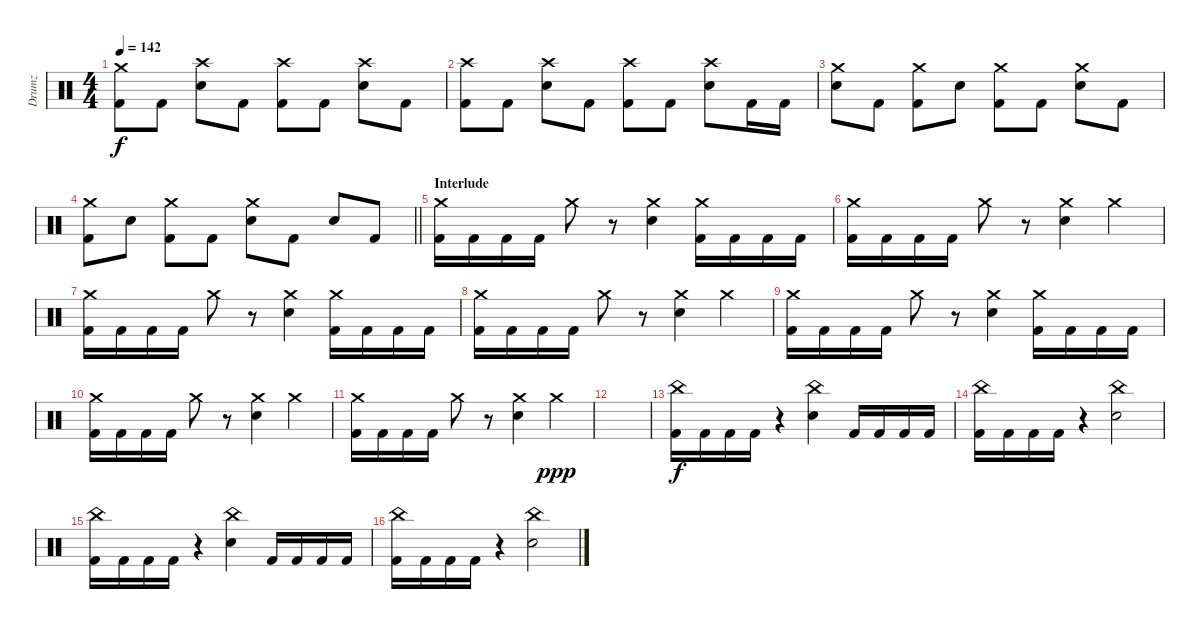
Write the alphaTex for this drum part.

\track ("Drumz" "Drumz") {instrument percussion}
\staff {score}
\articulation defaults
\ts (4 4)
\tempo 142
\clef neutral
\ks c
("Crash medium (hit)" "Kick (hit) 2").8{dy f} "Kick (hit) 2".8 ("Crash high (hit)" "Electric Snare (hit)").8 "Kick (hit) 2".8 ("Crash high (hit)" "Kick (hit) 2").8 "Kick (hit) 2".8 ("Crash high (hit)" "Electric Snare (hit)").8 "Kick (hit) 2".8 |
("Crash high (hit)" "Kick (hit) 2").8 "Kick (hit) 2".8 ("Crash high (hit)" "Electric Snare (hit)").8 "Kick (hit) 2".8 ("Crash high (hit)" "Kick (hit) 2").8 "Kick (hit) 2".8 ("Crash high (hit)" "Electric Snare (hit)").8 "Kick (hit) 2".16 "Kick (hit) 2".16 |
("Crash medium (hit)" "Electric Snare (hit)").8 "Kick (hit) 2".8 ("Crash medium (hit)" "Kick (hit) 2").8 "Electric Snare (hit)".8 ("Crash medium (hit)" "Kick (hit) 2").8 "Kick (hit) 2".8 ("Crash medium (hit)" "Electric Snare (hit)").8 "Kick (hit) 2".8 |
\barLineRight lightlight
("Crash medium (hit)" "Kick (hit) 2").8 "Electric Snare (hit)".8 ("Crash medium (hit)" "Kick (hit) 2").8 "Kick (hit) 2".8 ("Crash medium (hit)" "Electric Snare (hit)").8 "Kick (hit) 2".8 "Electric Snare (hit)".8 "Kick (hit) 2".8 |
\section ("" "Interlude")
("Crash medium (hit)" "Kick (hit) 2").16 "Kick (hit) 2".16 "Kick (hit) 2".16 "Kick (hit) 2".16 "Crash medium (hit)".8 r.8 ("Crash medium (hit)" "Electric Snare (hit)").4 ("Crash medium (hit)" "Kick (hit) 2").16 "Kick (hit) 2".16 "Kick (hit) 2".16 "Kick (hit) 2".16 |
("Crash medium (hit)" "Kick (hit) 2").16 "Kick (hit) 2".16 "Kick (hit) 2".16 "Kick (hit) 2".16 "Crash medium (hit)".8 r.8 ("Crash medium (hit)" "Electric Snare (hit)").4 "Crash medium (hit)".4 |
("Crash medium (hit)" "Kick (hit) 2").16 "Kick (hit) 2".16 "Kick (hit) 2".16 "Kick (hit) 2".16 "Crash medium (hit)".8 r.8 ("Crash medium (hit)" "Electric Snare (hit)").4 ("Crash medium (hit)" "Kick (hit) 2").16 "Kick (hit) 2".16 "Kick (hit) 2".16 "Kick (hit) 2".16 |
("Crash medium (hit)" "Kick (hit) 2").16 "Kick (hit) 2".16 "Kick (hit) 2".16 "Kick (hit) 2".16 "Crash medium (hit)".8 r.8 ("Crash medium (hit)" "Electric Snare (hit)").4 "Crash medium (hit)".4 |
("Crash medium (hit)" "Kick (hit) 2").16 "Kick (hit) 2".16 "Kick (hit) 2".16 "Kick (hit) 2".16 "Crash medium (hit)".8 r.8 ("Crash medium (hit)" "Electric Snare (hit)").4 ("Crash medium (hit)" "Kick (hit) 2").16 "Kick (hit) 2".16 "Kick (hit) 2".16 "Kick (hit) 2".16 |
("Crash medium (hit)" "Kick (hit) 2").16 "Kick (hit) 2".16 "Kick (hit) 2".16 "Kick (hit) 2".16 "Crash medium (hit)".8 r.8 ("Crash medium (hit)" "Electric Snare (hit)").4 "Crash medium (hit)".4 |
("Crash medium (hit)" "Kick (hit) 2").16 "Kick (hit) 2".16 "Kick (hit) 2".16 "Kick (hit) 2".16 "Crash medium (hit)".8 r.8 ("Crash medium (hit)" "Electric Snare (hit)").4 "Crash medium (hit)".4{dy ppp} |
|
("China (hit)" "Kick (hit) 2").16{dy f} "Kick (hit) 2".16 "Kick (hit) 2".16 "Kick (hit) 2".16 r.4 ("China (hit)" "Electric Snare (hit)").4 "Kick (hit) 2".16 "Kick (hit) 2".16 "Kick (hit) 2".16 "Kick (hit) 2".16 |
("China (hit)" "Kick (hit) 2").16 "Kick (hit) 2".16 "Kick (hit) 2".16 "Kick (hit) 2".16 r.4 ("China (hit)" "Electric Snare (hit)").2 |
("China (hit)" "Kick (hit) 2").16 "Kick (hit) 2".16 "Kick (hit) 2".16 "Kick (hit) 2".16 r.4 ("China (hit)" "Electric Snare (hit)").4 "Kick (hit) 2".16 "Kick (hit) 2".16 "Kick (hit) 2".16 "Kick (hit) 2".16 |
("China (hit)" "Kick (hit) 2").16 "Kick (hit) 2".16 "Kick (hit) 2".16 "Kick (hit) 2".16 r.4 ("China (hit)" "Electric Snare (hit)").2
